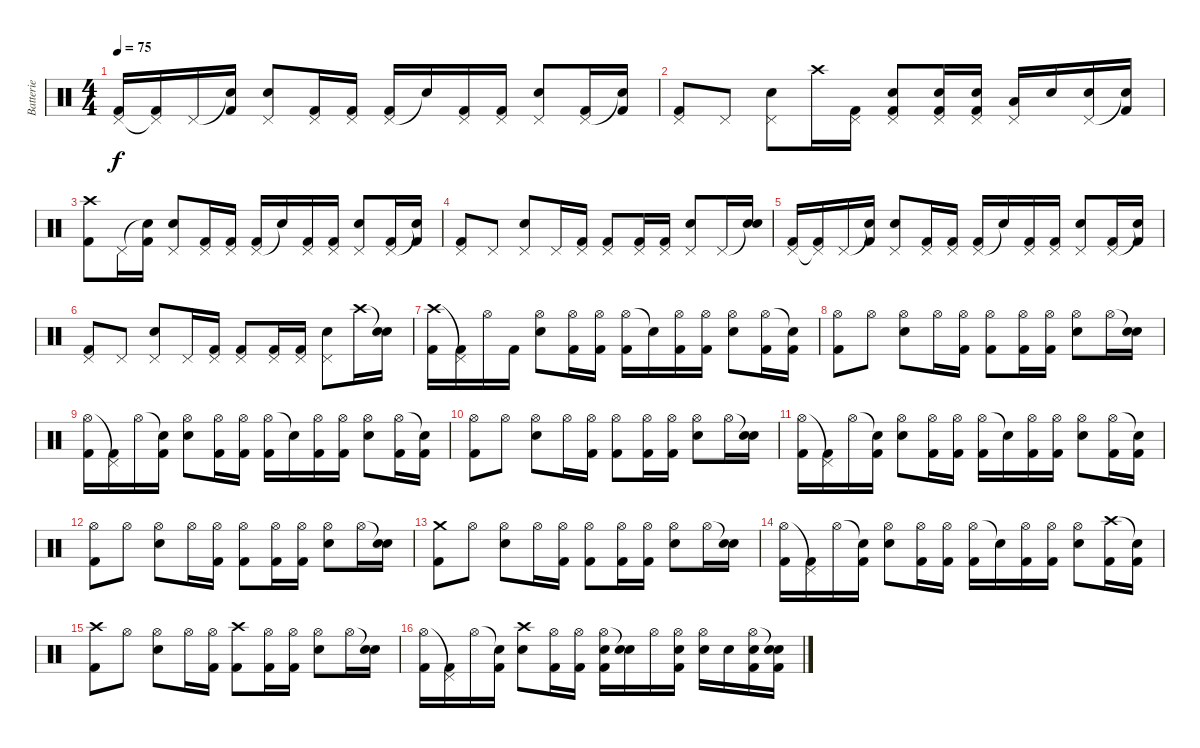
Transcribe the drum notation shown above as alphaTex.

\track ("Batterie" "Batterie") {instrument percussion}
\staff {score}
\articulation defaults
\ts (4 4)
\tempo 75
\clef neutral
\ks c
("Pedal Hi-Hat (hit)" "Kick (hit) 2").16{dy f} ("Pedal Hi-Hat (hit)"{t} "Kick (hit) 2").16 "Pedal Hi-Hat (hit)".16 ("Snare (hit)"{t} "Kick (hit) 2").16 ("Pedal Hi-Hat (hit)" "Electric Snare (hit)").8 ("Pedal Hi-Hat (hit)" "Kick (hit) 2").16 ("Pedal Hi-Hat (hit)" "Kick (hit) 2").16 ("Pedal Hi-Hat (hit)" "Kick (hit) 2").16 "Snare (hit)"{t}.16 ("Pedal Hi-Hat (hit)" "Kick (hit) 2").16 ("Pedal Hi-Hat (hit)" "Kick (hit) 2").16 ("Pedal Hi-Hat (hit)" "Electric Snare (hit)").8 ("Pedal Hi-Hat (hit)" "Kick (hit) 2").16 ("Snare (hit)"{t} "Kick (hit) 2").16 |
("Pedal Hi-Hat (hit)" "Kick (hit) 2").8 "Pedal Hi-Hat (hit)".8 ("Pedal Hi-Hat (hit)" "Electric Snare (hit)").8 "Crash high (hit)".16 ("Pedal Hi-Hat (hit)" "Kick (hit) 2").16 ("Pedal Hi-Hat (hit)" "Electric Snare (hit)" "Kick (hit) 2").8 ("Pedal Hi-Hat (hit)" "Electric Snare (hit)" "Kick (hit) 2").16 ("Pedal Hi-Hat (hit)" "Electric Snare (hit)" "Kick (hit) 2").16 ("Pedal Hi-Hat (hit)" "Low Floor Tom (hit)").16 "Electric Snare (hit)".16 ("Pedal Hi-Hat (hit)" "Electric Snare (hit)").16 ("Snare (hit)"{t} "Kick (hit) 2").16 |
("Crash high (hit)" "Kick (hit) 2").8 "Pedal Hi-Hat (hit)".16 ("Snare (hit)"{t} "Kick (hit) 2").16 ("Pedal Hi-Hat (hit)" "Electric Snare (hit)").8 ("Pedal Hi-Hat (hit)" "Kick (hit) 2").16 ("Pedal Hi-Hat (hit)" "Kick (hit) 2").16 ("Pedal Hi-Hat (hit)" "Kick (hit) 2").16 "Snare (hit)"{t}.16 ("Pedal Hi-Hat (hit)" "Kick (hit) 2").16 ("Pedal Hi-Hat (hit)" "Kick (hit) 2").16 ("Pedal Hi-Hat (hit)" "Electric Snare (hit)").8 ("Pedal Hi-Hat (hit)" "Kick (hit) 2").16 ("Snare (hit)"{t} "Kick (hit) 2").16 |
("Pedal Hi-Hat (hit)" "Kick (hit) 2").8 "Pedal Hi-Hat (hit)".8 ("Pedal Hi-Hat (hit)" "Electric Snare (hit)").8 "Pedal Hi-Hat (hit)".16 ("Pedal Hi-Hat (hit)" "Kick (hit) 2").16 ("Pedal Hi-Hat (hit)" "Kick (hit) 2").8 ("Pedal Hi-Hat (hit)" "Kick (hit) 2").16 ("Pedal Hi-Hat (hit)" "Kick (hit) 2").16 ("Pedal Hi-Hat (hit)" "Electric Snare (hit)").8 "Pedal Hi-Hat (hit)".16 ("Snare (hit)"{t} "Electric Snare (hit)").16 |
("Pedal Hi-Hat (hit)" "Kick (hit) 2").16 ("Pedal Hi-Hat (hit)"{t} "Kick (hit) 2").16 "Pedal Hi-Hat (hit)".16 ("Snare (hit)"{t} "Kick (hit) 2").16 ("Pedal Hi-Hat (hit)" "Electric Snare (hit)").8 ("Pedal Hi-Hat (hit)" "Kick (hit) 2").16 ("Pedal Hi-Hat (hit)" "Kick (hit) 2").16 ("Pedal Hi-Hat (hit)" "Kick (hit) 2").16 "Snare (hit)"{t}.16 ("Pedal Hi-Hat (hit)" "Kick (hit) 2").16 ("Pedal Hi-Hat (hit)" "Kick (hit) 2").16 ("Pedal Hi-Hat (hit)" "Electric Snare (hit)").8 ("Pedal Hi-Hat (hit)" "Kick (hit) 2").16 ("Snare (hit)"{t} "Kick (hit) 2").16 |
("Pedal Hi-Hat (hit)" "Kick (hit) 2").8 "Pedal Hi-Hat (hit)".8 ("Pedal Hi-Hat (hit)" "Electric Snare (hit)").8 "Pedal Hi-Hat (hit)".16 ("Pedal Hi-Hat (hit)" "Kick (hit) 2").16 ("Pedal Hi-Hat (hit)" "Kick (hit) 2").8 ("Pedal Hi-Hat (hit)" "Kick (hit) 2").16 ("Pedal Hi-Hat (hit)" "Kick (hit) 2").16 ("Pedal Hi-Hat (hit)" "Electric Snare (hit)").8 "Crash high (hit)".16 ("Snare (hit)"{t} "Electric Snare (hit)").16 |
("Crash high (hit)" "Kick (hit) 2").16 ("Pedal Hi-Hat (hit)"{t} "Kick (hit) 2").16 "Hi-Hat (open)".16 "Kick (hit) 2".16 ("Hi-Hat (open)" "Electric Snare (hit)").8 ("Hi-Hat (open)" "Kick (hit) 2").16 ("Hi-Hat (open)" "Kick (hit) 2").16 ("Hi-Hat (open)" "Kick (hit) 2").16 "Snare (hit)"{t}.16 ("Hi-Hat (open)" "Kick (hit) 2").16 ("Hi-Hat (open)" "Kick (hit) 2").16 ("Hi-Hat (open)" "Electric Snare (hit)").8 ("Hi-Hat (open)" "Kick (hit) 2").16 ("Snare (hit)"{t} "Kick (hit) 2").16 |
("Hi-Hat (open)" "Kick (hit) 2").8 "Hi-Hat (open)".8 ("Hi-Hat (open)" "Electric Snare (hit)").8 "Hi-Hat (open)".16 ("Hi-Hat (open)" "Kick (hit) 2").16 ("Hi-Hat (open)" "Kick (hit) 2").8 ("Hi-Hat (open)" "Kick (hit) 2").16 ("Hi-Hat (open)" "Kick (hit) 2").16 ("Hi-Hat (open)" "Electric Snare (hit)").8 "Hi-Hat (open)".16 ("Snare (hit)"{t} "Electric Snare (hit)").16 |
("Hi-Hat (open)" "Kick (hit) 2").16 ("Pedal Hi-Hat (hit)"{t} "Kick (hit) 2").16 "Hi-Hat (open)".16 ("Snare (hit)"{t} "Kick (hit) 2").16 ("Hi-Hat (open)" "Electric Snare (hit)").8 ("Hi-Hat (open)" "Kick (hit) 2").16 ("Hi-Hat (open)" "Kick (hit) 2").16 ("Hi-Hat (open)" "Kick (hit) 2").16 "Snare (hit)"{t}.16 ("Hi-Hat (open)" "Kick (hit) 2").16 ("Hi-Hat (open)" "Kick (hit) 2").16 ("Hi-Hat (open)" "Electric Snare (hit)").8 ("Hi-Hat (open)" "Kick (hit) 2").16 ("Snare (hit)"{t} "Kick (hit) 2").16 |
("Hi-Hat (open)" "Kick (hit) 2").8 "Hi-Hat (open)".8 ("Hi-Hat (open)" "Electric Snare (hit)").8 "Hi-Hat (open)".16 ("Hi-Hat (open)" "Kick (hit) 2").16 ("Hi-Hat (open)" "Kick (hit) 2").8 ("Hi-Hat (open)" "Kick (hit) 2").16 ("Hi-Hat (open)" "Kick (hit) 2").16 ("Hi-Hat (open)" "Electric Snare (hit)").8 "Hi-Hat (open)".16 ("Snare (hit)"{t} "Electric Snare (hit)").16 |
("Hi-Hat (open)" "Kick (hit) 2").16 ("Pedal Hi-Hat (hit)"{t} "Kick (hit) 2").16 "Hi-Hat (open)".16 ("Snare (hit)"{t} "Kick (hit) 2").16 ("Hi-Hat (open)" "Electric Snare (hit)").8 ("Hi-Hat (open)" "Kick (hit) 2").16 ("Hi-Hat (open)" "Kick (hit) 2").16 ("Hi-Hat (open)" "Kick (hit) 2").16 "Snare (hit)"{t}.16 ("Hi-Hat (open)" "Kick (hit) 2").16 ("Hi-Hat (open)" "Kick (hit) 2").16 ("Hi-Hat (open)" "Electric Snare (hit)").8 ("Hi-Hat (open)" "Kick (hit) 2").16 ("Snare (hit)"{t} "Kick (hit) 2").16 |
("Hi-Hat (open)" "Kick (hit) 2").8 "Hi-Hat (open)".8 ("Hi-Hat (open)" "Electric Snare (hit)").8 "Hi-Hat (open)".16 ("Hi-Hat (open)" "Kick (hit) 2").16 ("Hi-Hat (open)" "Kick (hit) 2").8 ("Hi-Hat (open)" "Kick (hit) 2").16 ("Hi-Hat (open)" "Kick (hit) 2").16 ("Hi-Hat (open)" "Electric Snare (hit)").8 "Hi-Hat (open)".16 ("Snare (hit)"{t} "Electric Snare (hit)").16 |
("Crash medium (hit)" "Kick (hit) 2").8 "Hi-Hat (open)".8 ("Hi-Hat (open)" "Electric Snare (hit)").8 "Hi-Hat (open)".16 ("Hi-Hat (open)" "Kick (hit) 2").16 ("Hi-Hat (open)" "Kick (hit) 2").8 ("Hi-Hat (open)" "Kick (hit) 2").16 ("Hi-Hat (open)" "Kick (hit) 2").16 ("Hi-Hat (open)" "Electric Snare (hit)").8 "Hi-Hat (open)".16 ("Snare (hit)"{t} "Electric Snare (hit)").16 |
("Hi-Hat (open)" "Kick (hit) 2").16 ("Pedal Hi-Hat (hit)"{t} "Kick (hit) 2").16 "Hi-Hat (open)".16 ("Snare (hit)"{t} "Kick (hit) 2").16 ("Hi-Hat (open)" "Electric Snare (hit)").8 ("Hi-Hat (open)" "Kick (hit) 2").16 ("Hi-Hat (open)" "Kick (hit) 2").16 ("Hi-Hat (open)" "Kick (hit) 2").16 "Snare (hit)"{t}.16 ("Hi-Hat (open)" "Kick (hit) 2").16 ("Hi-Hat (open)" "Kick (hit) 2").16 ("Hi-Hat (open)" "Electric Snare (hit)").8 ("Crash high (hit)" "Kick (hit) 2").16 ("Snare (hit)"{t} "Kick (hit) 2").16 |
("Crash high (hit)" "Kick (hit) 2").8 "Hi-Hat (open)".8 ("Hi-Hat (open)" "Electric Snare (hit)").8 "Hi-Hat (open)".16 ("Hi-Hat (open)" "Kick (hit) 2").16 ("Crash high (hit)" "Kick (hit) 2").8 ("Hi-Hat (open)" "Kick (hit) 2").16 ("Hi-Hat (open)" "Kick (hit) 2").16 ("Hi-Hat (open)" "Electric Snare (hit)").8 "Hi-Hat (open)".16 ("Snare (hit)"{t} "Electric Snare (hit)").16 |
("Hi-Hat (open)" "Kick (hit) 2").16 ("Pedal Hi-Hat (hit)"{t} "Kick (hit) 2").16 "Hi-Hat (open)".16 ("Snare (hit)"{t} "Kick (hit) 2").16 ("Crash high (hit)" "Electric Snare (hit)").8 ("Hi-Hat (open)" "Kick (hit) 2").16 ("Hi-Hat (open)" "Kick (hit) 2").16 ("Hi-Hat (open)" "Electric Snare (hit)" "Kick (hit) 2").16 ("Snare (hit)"{t} "Snare (hit) 2").16 "Hi-Hat (open)".16 ("Hi-Hat (open)" "Snare (hit) 2" "Kick (hit) 2").16 ("Hi-Hat (open)" "Electric Snare (hit)").16 "Snare (hit) 2".16 ("Hi-Hat (open)" "Snare (hit) 2" "Kick (hit) 2").16 ("Snare (hit)"{t} "Electric Snare (hit)" "Kick (hit) 2").16
